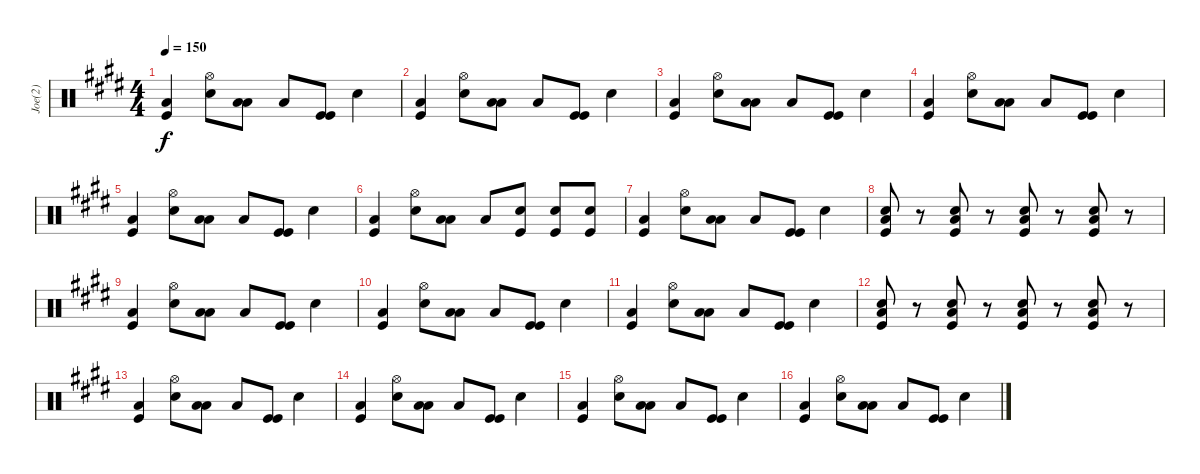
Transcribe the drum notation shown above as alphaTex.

\track ("Joe(2)" "Joe(2)") {instrument percussion}
\staff {score}
\articulation defaults
\ts (4 4)
\tempo 150
\clef neutral
\ks c#minor
("Kick (hit)" "Low Floor Tom (hit)").4{dy f} ("Snare (hit) 2" "Hi-Hat (open)").8 ("Low Tom (hit)" "Low Floor Tom (hit)").8 "Low Floor Tom (hit)".8 ("Kick (hit)" "Kick (hit)").8 "Snare (hit) 2".4 |
("Kick (hit)" "Low Floor Tom (hit)").4 ("Snare (hit) 2" "Hi-Hat (open)").8 ("Low Tom (hit)" "Low Floor Tom (hit)").8 "Low Floor Tom (hit)".8 ("Kick (hit)" "Kick (hit)").8 "Snare (hit) 2".4 |
("Kick (hit)" "Low Floor Tom (hit)").4 ("Snare (hit) 2" "Hi-Hat (open)").8 ("Low Tom (hit)" "Low Floor Tom (hit)").8 "Low Floor Tom (hit)".8 ("Kick (hit)" "Kick (hit)").8 "Snare (hit) 2".4 |
("Kick (hit)" "Low Floor Tom (hit)").4 ("Snare (hit) 2" "Hi-Hat (open)").8 ("Low Tom (hit)" "Low Floor Tom (hit)").8 "Low Floor Tom (hit)".8 ("Kick (hit)" "Kick (hit)").8 "Snare (hit) 2".4 |
("Kick (hit)" "Low Floor Tom (hit)").4 ("Snare (hit) 2" "Hi-Hat (open)").8 ("Low Tom (hit)" "Low Floor Tom (hit)").8 "Low Floor Tom (hit)".8 ("Kick (hit)" "Kick (hit)").8 "Snare (hit) 2".4 |
("Kick (hit)" "Low Floor Tom (hit)").4 ("Snare (hit) 2" "Hi-Hat (open)").8 ("Low Tom (hit)" "Low Floor Tom (hit)").8 "Low Floor Tom (hit)".8 ("Snare (hit) 2" "Kick (hit)").8 ("Snare (hit) 2" "Kick (hit)").8 ("Kick (hit)" "Snare (hit) 2").8 |
("Kick (hit)" "Low Floor Tom (hit)").4 ("Snare (hit) 2" "Hi-Hat (open)").8 ("Low Tom (hit)" "Low Floor Tom (hit)").8 "Low Floor Tom (hit)".8 ("Kick (hit)" "Kick (hit)").8 "Snare (hit) 2".4 |
("Snare (hit) 2" "Kick (hit)" "Low Floor Tom (hit)").8 r.8 ("Snare (hit) 2" "Kick (hit)" "Low Floor Tom (hit)").8 r.8 ("Snare (hit) 2" "Kick (hit)" "Low Floor Tom (hit)").8 r.8 ("Snare (hit) 2" "Kick (hit)" "Low Floor Tom (hit)").8 r.8 |
("Kick (hit)" "Low Floor Tom (hit)").4 ("Snare (hit) 2" "Hi-Hat (open)").8 ("Low Tom (hit)" "Low Floor Tom (hit)").8 "Low Floor Tom (hit)".8 ("Kick (hit)" "Kick (hit)").8 "Snare (hit) 2".4 |
("Kick (hit)" "Low Floor Tom (hit)").4 ("Snare (hit) 2" "Hi-Hat (open)").8 ("Low Tom (hit)" "Low Floor Tom (hit)").8 "Low Floor Tom (hit)".8 ("Kick (hit)" "Kick (hit)").8 "Snare (hit) 2".4 |
("Kick (hit)" "Low Floor Tom (hit)").4 ("Snare (hit) 2" "Hi-Hat (open)").8 ("Low Tom (hit)" "Low Floor Tom (hit)").8 "Low Floor Tom (hit)".8 ("Kick (hit)" "Kick (hit)").8 "Snare (hit) 2".4 |
("Snare (hit) 2" "Kick (hit)" "Low Floor Tom (hit)").8 r.8 ("Snare (hit) 2" "Kick (hit)" "Low Floor Tom (hit)").8 r.8 ("Snare (hit) 2" "Kick (hit)" "Low Floor Tom (hit)").8 r.8 ("Snare (hit) 2" "Kick (hit)" "Low Floor Tom (hit)").8 r.8 |
("Kick (hit)" "Low Floor Tom (hit)").4 ("Snare (hit) 2" "Hi-Hat (open)").8 ("Low Tom (hit)" "Low Floor Tom (hit)").8 "Low Floor Tom (hit)".8 ("Kick (hit)" "Kick (hit)").8 "Snare (hit) 2".4 |
("Kick (hit)" "Low Floor Tom (hit)").4 ("Snare (hit) 2" "Hi-Hat (open)").8 ("Low Tom (hit)" "Low Floor Tom (hit)").8 "Low Floor Tom (hit)".8 ("Kick (hit)" "Kick (hit)").8 "Snare (hit) 2".4 |
("Kick (hit)" "Low Floor Tom (hit)").4 ("Snare (hit) 2" "Hi-Hat (open)").8 ("Low Tom (hit)" "Low Floor Tom (hit)").8 "Low Floor Tom (hit)".8 ("Kick (hit)" "Kick (hit)").8 "Snare (hit) 2".4 |
("Kick (hit)" "Low Floor Tom (hit)").4 ("Snare (hit) 2" "Hi-Hat (open)").8 ("Low Tom (hit)" "Low Floor Tom (hit)").8 "Low Floor Tom (hit)".8 ("Kick (hit)" "Kick (hit)").8 "Snare (hit) 2".4
